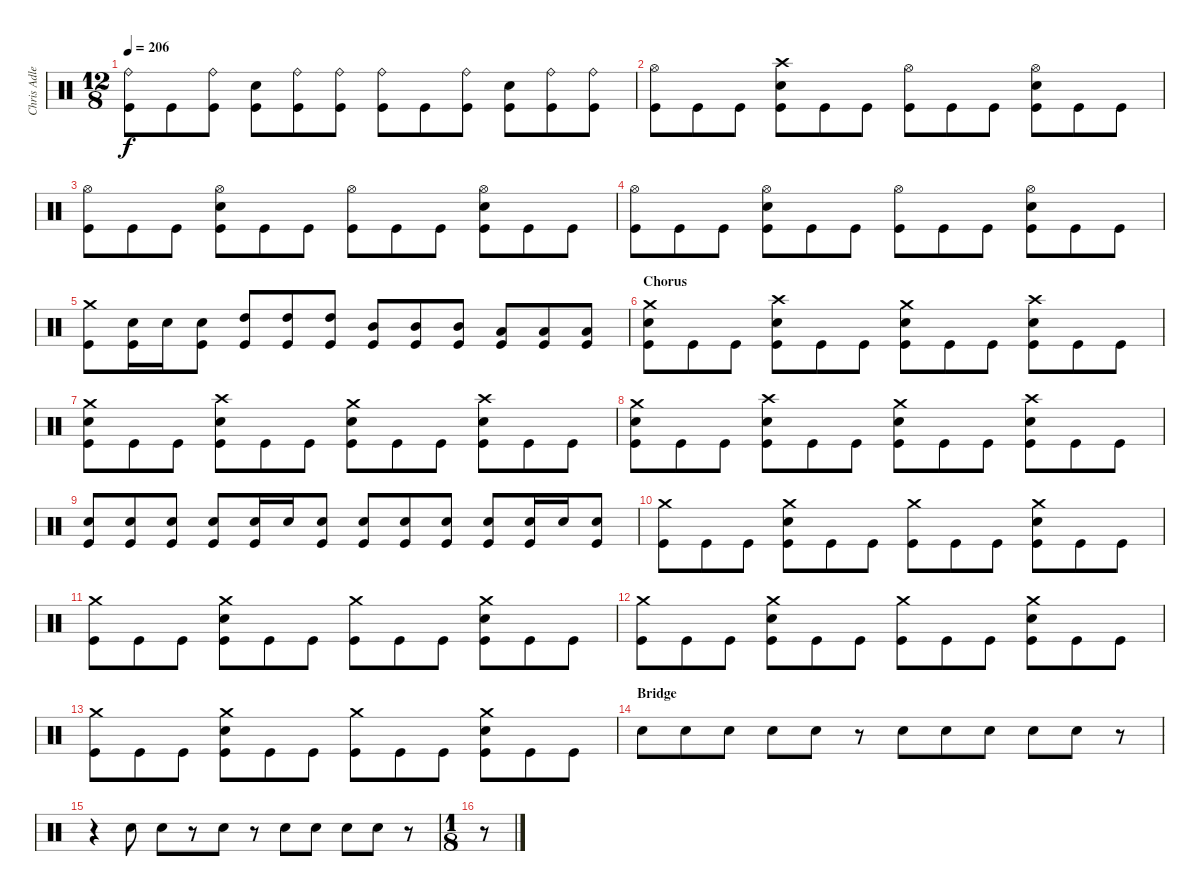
\track ("Chris Adler" "Chris Adle") {instrument percussion}
\staff {score}
\articulation defaults
\ts (12 8)
\tempo 206
\clef neutral
\ks c
("Ride (bell)" "Kick (hit)").8{dy f} "Kick (hit)".8 ("Ride (bell)" "Kick (hit)").8 ("Snare (hit) 2" "Kick (hit)").8 ("Ride (bell)" "Kick (hit)").8 ("Ride (bell)" "Kick (hit)").8 ("Ride (bell)" "Kick (hit)").8 "Kick (hit)".8 ("Ride (bell)" "Kick (hit)").8 ("Snare (hit) 2" "Kick (hit)").8 ("Ride (bell)" "Kick (hit)").8 ("Ride (bell)" "Kick (hit)").8 |
("Kick (hit)" "Hi-Hat (open)").8 "Kick (hit)".8 "Kick (hit)".8 ("Snare (hit) 2" "Kick (hit)" "Crash high (hit)").8 "Kick (hit)".8 "Kick (hit)".8 ("Kick (hit)" "Hi-Hat (open)").8 "Kick (hit)".8 "Kick (hit)".8 ("Snare (hit) 2" "Kick (hit)" "Hi-Hat (open)").8 "Kick (hit)".8 "Kick (hit)".8 |
("Kick (hit)" "Hi-Hat (open)").8 "Kick (hit)".8 "Kick (hit)".8 ("Snare (hit) 2" "Kick (hit)" "Hi-Hat (open)").8 "Kick (hit)".8 "Kick (hit)".8 ("Kick (hit)" "Hi-Hat (open)").8 "Kick (hit)".8 "Kick (hit)".8 ("Snare (hit) 2" "Kick (hit)" "Hi-Hat (open)").8 "Kick (hit)".8 "Kick (hit)".8 |
("Kick (hit)" "Hi-Hat (open)").8 "Kick (hit)".8 "Kick (hit)".8 ("Snare (hit) 2" "Kick (hit)" "Hi-Hat (open)").8 "Kick (hit)".8 "Kick (hit)".8 ("Kick (hit)" "Hi-Hat (open)").8 "Kick (hit)".8 "Kick (hit)".8 ("Snare (hit) 2" "Kick (hit)" "Hi-Hat (open)").8 "Kick (hit)".8 "Kick (hit)".8 |
("Crash medium (hit)" "Kick (hit)").8 ("Snare (hit) 2" "Kick (hit)").16 "Snare (hit) 2".16 ("Snare (hit) 2" "Kick (hit)").8 ("High Tom (hit)" "Kick (hit)").8 ("High Tom (hit)" "Kick (hit)").8 ("High Tom (hit)" "Kick (hit)").8 ("Mid Tom (hit)" "Kick (hit)").8 ("Mid Tom (hit)" "Kick (hit)").8 ("Mid Tom (hit)" "Kick (hit)").8 ("Low Tom (hit)" "Kick (hit)").8 ("Low Tom (hit)" "Kick (hit)").8 ("Low Tom (hit)" "Kick (hit)").8 |
\section ("" "Chorus")
("Crash medium (hit)" "Snare (hit) 2" "Kick (hit)").8 "Kick (hit)".8 "Kick (hit)".8 ("Crash high (hit)" "Snare (hit) 2" "Kick (hit)").8 "Kick (hit)".8 "Kick (hit)".8 ("Crash medium (hit)" "Snare (hit) 2" "Kick (hit)").8 "Kick (hit)".8 "Kick (hit)".8 ("Crash high (hit)" "Snare (hit) 2" "Kick (hit)").8 "Kick (hit)".8 "Kick (hit)".8 |
("Crash medium (hit)" "Snare (hit) 2" "Kick (hit)").8 "Kick (hit)".8 "Kick (hit)".8 ("Crash high (hit)" "Snare (hit) 2" "Kick (hit)").8 "Kick (hit)".8 "Kick (hit)".8 ("Crash medium (hit)" "Snare (hit) 2" "Kick (hit)").8 "Kick (hit)".8 "Kick (hit)".8 ("Crash high (hit)" "Snare (hit) 2" "Kick (hit)").8 "Kick (hit)".8 "Kick (hit)".8 |
("Crash medium (hit)" "Snare (hit) 2" "Kick (hit)").8 "Kick (hit)".8 "Kick (hit)".8 ("Crash high (hit)" "Snare (hit) 2" "Kick (hit)").8 "Kick (hit)".8 "Kick (hit)".8 ("Crash medium (hit)" "Snare (hit) 2" "Kick (hit)").8 "Kick (hit)".8 "Kick (hit)".8 ("Crash high (hit)" "Kick (hit)" "Snare (hit) 2").8 "Kick (hit)".8 "Kick (hit)".8 |
("Snare (hit) 2" "Kick (hit)").8 ("Snare (hit) 2" "Kick (hit)").8 ("Snare (hit) 2" "Kick (hit)").8 ("Snare (hit) 2" "Kick (hit)").8 ("Snare (hit) 2" "Kick (hit)").16 "Snare (hit) 2".16 ("Snare (hit) 2" "Kick (hit)").8 ("Snare (hit) 2" "Kick (hit)").8 ("Snare (hit) 2" "Kick (hit)").8 ("Snare (hit) 2" "Kick (hit)").8 ("Snare (hit) 2" "Kick (hit)").8 ("Snare (hit) 2" "Kick (hit)").16 "Snare (hit) 2".16 ("Snare (hit) 2" "Kick (hit)").8 |
("Kick (hit)" "Crash medium (hit)").8 "Kick (hit)".8 "Kick (hit)".8 ("Snare (hit) 2" "Kick (hit)" "Crash medium (hit)").8 "Kick (hit)".8 "Kick (hit)".8 ("Kick (hit)" "Crash medium (hit)").8 "Kick (hit)".8 "Kick (hit)".8 ("Snare (hit) 2" "Kick (hit)" "Crash medium (hit)").8 "Kick (hit)".8 "Kick (hit)".8 |
("Kick (hit)" "Crash medium (hit)").8 "Kick (hit)".8 "Kick (hit)".8 ("Snare (hit) 2" "Kick (hit)" "Crash medium (hit)").8 "Kick (hit)".8 "Kick (hit)".8 ("Kick (hit)" "Crash medium (hit)").8 "Kick (hit)".8 "Kick (hit)".8 ("Snare (hit) 2" "Kick (hit)" "Crash medium (hit)").8 "Kick (hit)".8 "Kick (hit)".8 |
("Kick (hit)" "Crash medium (hit)").8 "Kick (hit)".8 "Kick (hit)".8 ("Snare (hit) 2" "Kick (hit)" "Crash medium (hit)").8 "Kick (hit)".8 "Kick (hit)".8 ("Kick (hit)" "Crash medium (hit)").8 "Kick (hit)".8 "Kick (hit)".8 ("Snare (hit) 2" "Kick (hit)" "Crash medium (hit)").8 "Kick (hit)".8 "Kick (hit)".8 |
("Kick (hit)" "Crash medium (hit)").8 "Kick (hit)".8 "Kick (hit)".8 ("Snare (hit) 2" "Kick (hit)" "Crash medium (hit)").8 "Kick (hit)".8 "Kick (hit)".8 ("Kick (hit)" "Crash medium (hit)").8 "Kick (hit)".8 "Kick (hit)".8 ("Snare (hit) 2" "Kick (hit)" "Crash medium (hit)").8 "Kick (hit)".8 "Kick (hit)".8 |
\section ("" "Bridge")
"Snare (hit) 2".8 "Snare (hit) 2".8 "Snare (hit) 2".8 "Snare (hit) 2".8 "Snare (hit) 2".8 r.8 "Snare (hit) 2".8 "Snare (hit) 2".8 "Snare (hit) 2".8 "Snare (hit) 2".8 "Snare (hit) 2".8 r.8 |
r.4 "Snare (hit) 2".8 "Snare (hit) 2".8 r.8 "Snare (hit) 2".8 r.8 "Snare (hit) 2".8 "Snare (hit) 2".8 "Snare (hit) 2".8 "Snare (hit) 2".8 r.8 |
\ts (1 8)
r.8
